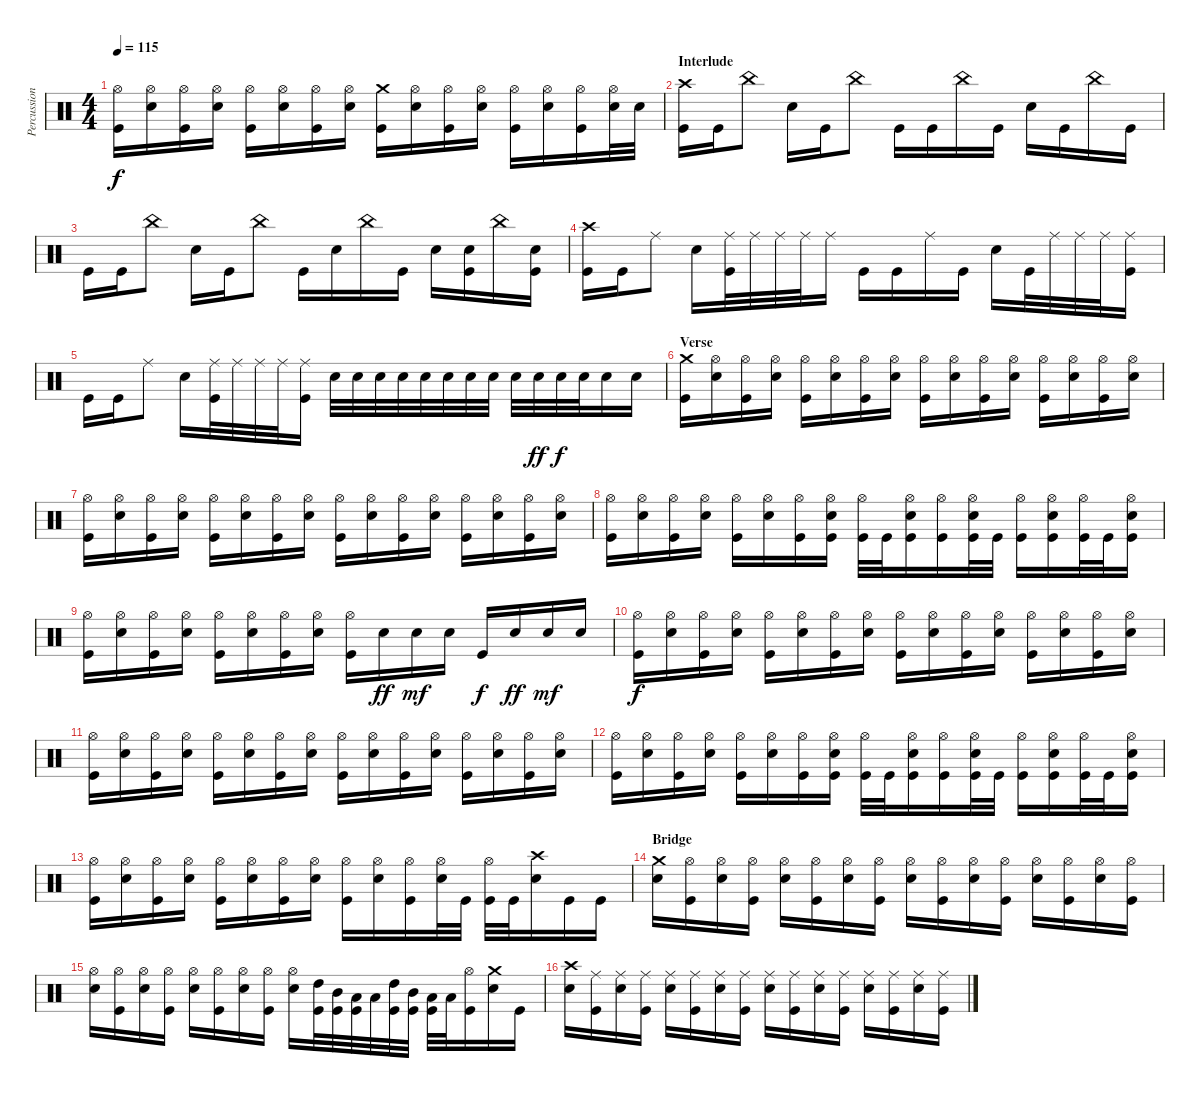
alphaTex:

\track ("Percussion" "Percussion") {instrument percussion}
\staff {score}
\articulation defaults
\ts (4 4)
\tempo 115
\clef neutral
\ks c
("Hi-Hat (open)" "Kick (hit)").16{dy f} ("Hi-Hat (open)" "Electric Snare (hit)").16 ("Hi-Hat (open)" "Kick (hit)").16 ("Hi-Hat (open)" "Electric Snare (hit)").16 ("Hi-Hat (open)" "Kick (hit)").16 ("Hi-Hat (open)" "Electric Snare (hit)").16 ("Hi-Hat (open)" "Kick (hit)").16 ("Hi-Hat (open)" "Electric Snare (hit)").16 ("Crash medium (hit)" "Kick (hit)").16 ("Hi-Hat (open)" "Electric Snare (hit)").16 ("Hi-Hat (open)" "Kick (hit)").16 ("Hi-Hat (open)" "Electric Snare (hit)").16 ("Hi-Hat (open)" "Kick (hit)").16 ("Hi-Hat (open)" "Electric Snare (hit)").16 ("Hi-Hat (open)" "Kick (hit)").16 ("Hi-Hat (open)" "Electric Snare (hit)").32 "Electric Snare (hit)".32 |
\section ("" "Interlude")
("Crash high (hit)" "Kick (hit)").16 "Kick (hit)".16 "China (hit)".8 "Electric Snare (hit)".16 "Kick (hit)".16 "China (hit)".8 "Kick (hit)".16 "Kick (hit)".16 "China (hit)".16 "Kick (hit)".16 "Electric Snare (hit)".16 "Kick (hit)".16 "China (hit)".16 "Kick (hit)".16 |
"Kick (hit)".16 "Kick (hit)".16 "China (hit)".8 "Electric Snare (hit)".16 "Kick (hit)".16 "China (hit)".8 "Kick (hit)".16 "Electric Snare (hit)".16 "China (hit)".16 "Kick (hit)".16 "Electric Snare (hit)".16 ("Electric Snare (hit)" "Kick (hit)").16 "China (hit)".16 ("Electric Snare (hit)" "Kick (hit)").16 |
("Crash high (hit)" "Kick (hit)").16 "Kick (hit)".16 "Ride (middle)".8 "Electric Snare (hit)".16 ("Ride (middle)" "Kick (hit)").32 "Ride (middle)".32 "Ride (middle)".32 "Ride (middle)".32 "Ride (middle)".16 "Kick (hit)".16 "Kick (hit)".16 "Ride (middle)".16 "Kick (hit)".16 "Electric Snare (hit)".16 "Kick (hit)".32 "Ride (middle)".32 "Ride (middle)".32 "Ride (middle)".32 ("Ride (middle)" "Kick (hit)").16 |
"Kick (hit)".16 "Kick (hit)".16 "Ride (middle)".8 "Electric Snare (hit)".16 ("Ride (middle)" "Kick (hit)").32 "Ride (middle)".32 "Ride (middle)".32 "Ride (middle)".32 ("Ride (middle)" "Kick (hit)").16 "Electric Snare (hit)".32 "Electric Snare (hit)".32 "Electric Snare (hit)".32 "Electric Snare (hit)".32 "Electric Snare (hit)".32 "Electric Snare (hit)".32 "Electric Snare (hit)".32 "Electric Snare (hit)".32 "Electric Snare (hit)".32 "Electric Snare (hit)".32{dy ff} "Electric Snare (hit)".32{dy f} "Electric Snare (hit)".32 "Electric Snare (hit)".16 "Electric Snare (hit)".16 |
\section ("" "Verse")
("Crash medium (hit)" "Kick (hit)").16 ("Hi-Hat (open)" "Electric Snare (hit)").16 ("Hi-Hat (open)" "Kick (hit)").16 ("Hi-Hat (open)" "Electric Snare (hit)").16 ("Hi-Hat (open)" "Kick (hit)").16 ("Hi-Hat (open)" "Electric Snare (hit)").16 ("Hi-Hat (open)" "Kick (hit)").16 ("Hi-Hat (open)" "Electric Snare (hit)").16 ("Hi-Hat (open)" "Kick (hit)").16 ("Hi-Hat (open)" "Electric Snare (hit)").16 ("Hi-Hat (open)" "Kick (hit)").16 ("Hi-Hat (open)" "Electric Snare (hit)").16 ("Hi-Hat (open)" "Kick (hit)").16 ("Hi-Hat (open)" "Electric Snare (hit)").16 ("Hi-Hat (open)" "Kick (hit)").16 ("Hi-Hat (open)" "Electric Snare (hit)").16 |
("Hi-Hat (open)" "Kick (hit)").16 ("Hi-Hat (open)" "Electric Snare (hit)").16 ("Hi-Hat (open)" "Kick (hit)").16 ("Hi-Hat (open)" "Electric Snare (hit)").16 ("Hi-Hat (open)" "Kick (hit)").16 ("Hi-Hat (open)" "Electric Snare (hit)").16 ("Hi-Hat (open)" "Kick (hit)").16 ("Hi-Hat (open)" "Electric Snare (hit)").16 ("Hi-Hat (open)" "Kick (hit)").16 ("Hi-Hat (open)" "Electric Snare (hit)").16 ("Hi-Hat (open)" "Kick (hit)").16 ("Hi-Hat (open)" "Electric Snare (hit)").16 ("Hi-Hat (open)" "Kick (hit)").16 ("Hi-Hat (open)" "Electric Snare (hit)").16 ("Hi-Hat (open)" "Kick (hit)").16 ("Hi-Hat (open)" "Electric Snare (hit)").16 |
("Hi-Hat (open)" "Kick (hit)").16 ("Hi-Hat (open)" "Electric Snare (hit)").16 ("Hi-Hat (open)" "Kick (hit)").16 ("Hi-Hat (open)" "Electric Snare (hit)").16 ("Hi-Hat (open)" "Kick (hit)").16 ("Hi-Hat (open)" "Electric Snare (hit)").16 ("Hi-Hat (open)" "Kick (hit)").16 ("Hi-Hat (open)" "Electric Snare (hit)" "Kick (hit)").16 ("Hi-Hat (open)" "Kick (hit)").32 "Kick (hit)".32 ("Hi-Hat (open)" "Electric Snare (hit)" "Kick (hit)").16 ("Hi-Hat (open)" "Kick (hit)").16 ("Hi-Hat (open)" "Electric Snare (hit)" "Kick (hit)").32 "Kick (hit)".32 ("Hi-Hat (open)" "Kick (hit)").16 ("Hi-Hat (open)" "Electric Snare (hit)" "Kick (hit)").16 ("Hi-Hat (open)" "Kick (hit)").32 "Kick (hit)".32 ("Hi-Hat (open)" "Electric Snare (hit)" "Kick (hit)").16 |
("Hi-Hat (open)" "Kick (hit)").16 ("Hi-Hat (open)" "Electric Snare (hit)").16 ("Hi-Hat (open)" "Kick (hit)").16 ("Hi-Hat (open)" "Electric Snare (hit)").16 ("Hi-Hat (open)" "Kick (hit)").16 ("Hi-Hat (open)" "Electric Snare (hit)").16 ("Hi-Hat (open)" "Kick (hit)").16 ("Hi-Hat (open)" "Electric Snare (hit)").16 ("Hi-Hat (open)" "Kick (hit)").16 "Electric Snare (hit)".16{dy ff} "Electric Snare (hit)".16{dy mf} "Electric Snare (hit)".16 "Kick (hit)".16{dy f} "Electric Snare (hit)".16{dy ff} "Electric Snare (hit)".16{dy mf} "Electric Snare (hit)".16 |
("Hi-Hat (open)" "Kick (hit)").16{dy f} ("Hi-Hat (open)" "Electric Snare (hit)").16 ("Hi-Hat (open)" "Kick (hit)").16 ("Hi-Hat (open)" "Electric Snare (hit)").16 ("Hi-Hat (open)" "Kick (hit)").16 ("Hi-Hat (open)" "Electric Snare (hit)").16 ("Hi-Hat (open)" "Kick (hit)").16 ("Hi-Hat (open)" "Electric Snare (hit)").16 ("Hi-Hat (open)" "Kick (hit)").16 ("Hi-Hat (open)" "Electric Snare (hit)").16 ("Hi-Hat (open)" "Kick (hit)").16 ("Hi-Hat (open)" "Electric Snare (hit)").16 ("Hi-Hat (open)" "Kick (hit)").16 ("Hi-Hat (open)" "Electric Snare (hit)").16 ("Hi-Hat (open)" "Kick (hit)").16 ("Hi-Hat (open)" "Electric Snare (hit)").16 |
("Hi-Hat (open)" "Kick (hit)").16 ("Hi-Hat (open)" "Electric Snare (hit)").16 ("Hi-Hat (open)" "Kick (hit)").16 ("Hi-Hat (open)" "Electric Snare (hit)").16 ("Hi-Hat (open)" "Kick (hit)").16 ("Hi-Hat (open)" "Electric Snare (hit)").16 ("Hi-Hat (open)" "Kick (hit)").16 ("Hi-Hat (open)" "Electric Snare (hit)").16 ("Hi-Hat (open)" "Kick (hit)").16 ("Hi-Hat (open)" "Electric Snare (hit)").16 ("Hi-Hat (open)" "Kick (hit)").16 ("Hi-Hat (open)" "Electric Snare (hit)").16 ("Hi-Hat (open)" "Kick (hit)").16 ("Hi-Hat (open)" "Electric Snare (hit)").16 ("Hi-Hat (open)" "Kick (hit)").16 ("Hi-Hat (open)" "Electric Snare (hit)").16 |
("Hi-Hat (open)" "Kick (hit)").16 ("Hi-Hat (open)" "Electric Snare (hit)").16 ("Hi-Hat (open)" "Kick (hit)").16 ("Hi-Hat (open)" "Electric Snare (hit)").16 ("Hi-Hat (open)" "Kick (hit)").16 ("Hi-Hat (open)" "Electric Snare (hit)").16 ("Hi-Hat (open)" "Kick (hit)").16 ("Hi-Hat (open)" "Electric Snare (hit)" "Kick (hit)").16 ("Hi-Hat (open)" "Kick (hit)").32 "Kick (hit)".32 ("Hi-Hat (open)" "Electric Snare (hit)" "Kick (hit)").16 ("Hi-Hat (open)" "Kick (hit)").16 ("Hi-Hat (open)" "Electric Snare (hit)" "Kick (hit)").32 "Kick (hit)".32 ("Hi-Hat (open)" "Kick (hit)").16 ("Hi-Hat (open)" "Electric Snare (hit)" "Kick (hit)").16 ("Hi-Hat (open)" "Kick (hit)").32 "Kick (hit)".32 ("Hi-Hat (open)" "Electric Snare (hit)" "Kick (hit)").16 |
("Hi-Hat (open)" "Kick (hit)").16 ("Hi-Hat (open)" "Electric Snare (hit)").16 ("Hi-Hat (open)" "Kick (hit)").16 ("Hi-Hat (open)" "Electric Snare (hit)").16 ("Hi-Hat (open)" "Kick (hit)").16 ("Hi-Hat (open)" "Electric Snare (hit)").16 ("Hi-Hat (open)" "Kick (hit)").16 ("Hi-Hat (open)" "Electric Snare (hit)").16 ("Hi-Hat (open)" "Kick (hit)").16 ("Hi-Hat (open)" "Electric Snare (hit)").16 ("Hi-Hat (open)" "Kick (hit)").16 ("Hi-Hat (open)" "Electric Snare (hit)").32 "Kick (hit)".32 ("Hi-Hat (open)" "Kick (hit)").32 "Kick (hit)".32 ("Crash high (hit)" "Electric Snare (hit)").16 "Kick (hit)".16 "Kick (hit)".16 |
\section ("" "Bridge")
("Crash medium (hit)" "Electric Snare (hit)").16 ("Hi-Hat (open)" "Kick (hit)").16 ("Hi-Hat (open)" "Electric Snare (hit)").16 ("Hi-Hat (open)" "Kick (hit)").16 ("Hi-Hat (open)" "Electric Snare (hit)").16 ("Hi-Hat (open)" "Kick (hit)").16 ("Hi-Hat (open)" "Electric Snare (hit)").16 ("Hi-Hat (open)" "Kick (hit)").16 ("Hi-Hat (open)" "Electric Snare (hit)").16 ("Hi-Hat (open)" "Kick (hit)").16 ("Hi-Hat (open)" "Electric Snare (hit)").16 ("Hi-Hat (open)" "Kick (hit)").16 ("Hi-Hat (open)" "Electric Snare (hit)").16 ("Hi-Hat (open)" "Kick (hit)").16 ("Hi-Hat (open)" "Electric Snare (hit)").16 ("Hi-Hat (open)" "Kick (hit)").16 |
("Hi-Hat (open)" "Electric Snare (hit)").16 ("Hi-Hat (open)" "Kick (hit)").16 ("Hi-Hat (open)" "Electric Snare (hit)").16 ("Hi-Hat (open)" "Kick (hit)").16 ("Hi-Hat (open)" "Electric Snare (hit)").16 ("Hi-Hat (open)" "Kick (hit)").16 ("Hi-Hat (open)" "Electric Snare (hit)").16 ("Hi-Hat (open)" "Kick (hit)").16 ("Hi-Hat (open)" "Electric Snare (hit)").16 ("High Tom (hit)" "Kick (hit)").32 ("Mid Tom (hit)" "Kick (hit)").32 ("Low Tom (hit)" "Kick (hit)").32 "Low Tom (hit)".32 ("High Tom (hit)" "Kick (hit)").32 ("Mid Tom (hit)" "Kick (hit)").32 ("Low Tom (hit)" "Kick (hit)").32 "Low Tom (hit)".32 ("Hi-Hat (open)" "Kick (hit)").16 ("Crash medium (hit)" "Electric Snare (hit)").16 "Kick (hit)".16 |
("Crash high (hit)" "Electric Snare (hit)").16 ("Ride (middle)" "Kick (hit)").16 ("Ride (middle)" "Electric Snare (hit)").16 ("Ride (middle)" "Kick (hit)").16 ("Ride (middle)" "Electric Snare (hit)").16 ("Ride (middle)" "Kick (hit)").16 ("Ride (middle)" "Electric Snare (hit)").16 ("Ride (middle)" "Kick (hit)").16 ("Ride (middle)" "Electric Snare (hit)").16 ("Ride (middle)" "Kick (hit)").16 ("Ride (middle)" "Electric Snare (hit)").16 ("Ride (middle)" "Kick (hit)").16 ("Ride (middle)" "Electric Snare (hit)").16 ("Ride (middle)" "Kick (hit)").16 ("Ride (middle)" "Electric Snare (hit)").16 ("Ride (middle)" "Kick (hit)").16
